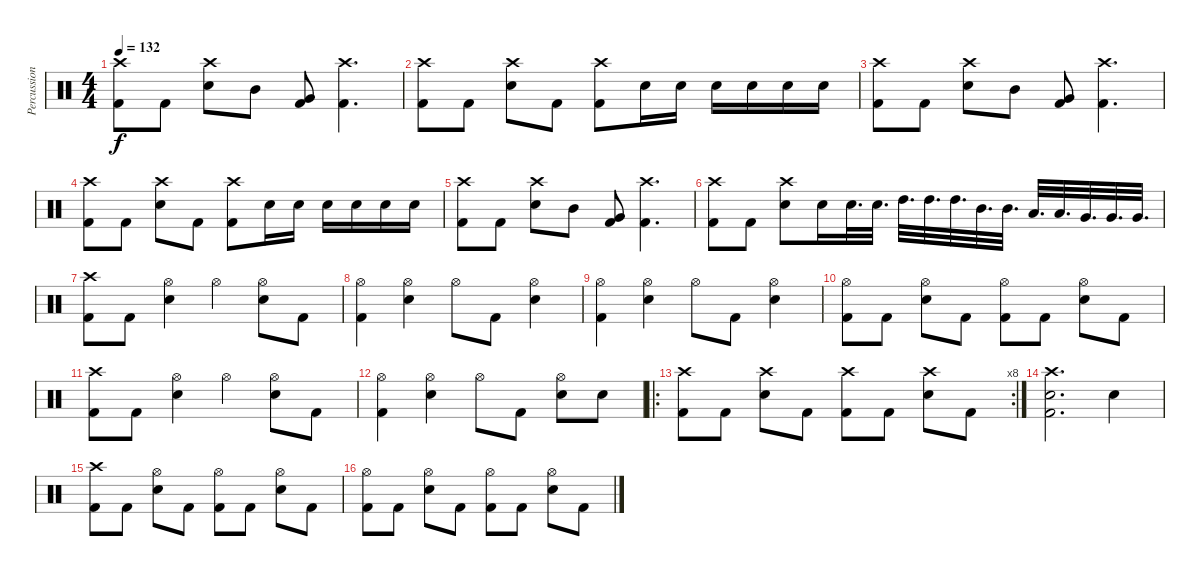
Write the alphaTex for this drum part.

\track ("Percussion" "Percussion") {instrument percussion}
\staff {score}
\articulation defaults
\ts (4 4)
\tempo 132
\clef neutral
\ks c
("Crash high (hit)" "Kick (hit) 2").8{dy f} "Kick (hit) 2".8 ("Crash high (hit)" "Electric Snare (hit)").8 "Mid Tom (hit)".8 ("Very Low Tom (hit)" "Kick (hit) 2").8 ("Crash high (hit)" "Kick (hit) 2").4{d} |
("Crash high (hit)" "Kick (hit) 2").8 "Kick (hit) 2".8 ("Crash high (hit)" "Electric Snare (hit)").8 "Kick (hit) 2".8 ("Crash high (hit)" "Kick (hit) 2").8 "Electric Snare (hit)".16 "Electric Snare (hit)".16 "Electric Snare (hit)".16 "Electric Snare (hit)".16 "Electric Snare (hit)".16 "Electric Snare (hit)".16 |
("Crash high (hit)" "Kick (hit) 2").8 "Kick (hit) 2".8 ("Crash high (hit)" "Electric Snare (hit)").8 "Mid Tom (hit)".8 ("Very Low Tom (hit)" "Kick (hit) 2").8 ("Crash high (hit)" "Kick (hit) 2").4{d} |
("Crash high (hit)" "Kick (hit) 2").8 "Kick (hit) 2".8 ("Crash high (hit)" "Electric Snare (hit)").8 "Kick (hit) 2".8 ("Crash high (hit)" "Kick (hit) 2").8 "Electric Snare (hit)".16 "Electric Snare (hit)".16 "Electric Snare (hit)".16 "Electric Snare (hit)".16 "Electric Snare (hit)".16 "Electric Snare (hit)".16 |
("Crash high (hit)" "Kick (hit) 2").8 "Kick (hit) 2".8 ("Crash high (hit)" "Electric Snare (hit)").8 "Mid Tom (hit)".8 ("Very Low Tom (hit)" "Kick (hit) 2").8 ("Crash high (hit)" "Kick (hit) 2").4{d} |
("Crash high (hit)" "Kick (hit) 2").8 "Kick (hit) 2".8 ("Crash high (hit)" "Electric Snare (hit)").8 "Electric Snare (hit)".16 "Electric Snare (hit)".32{d} "Electric Snare (hit)".32{d} "High Tom (hit)".32{d} "High Tom (hit)".32{d} "High Tom (hit)".32{d} "Mid Tom (hit)".32{d} "Mid Tom (hit)".32{d} "Low Tom (hit)".32{d} "Low Tom (hit)".32{d} "Very Low Tom (hit)".32{d} "Very Low Tom (hit)".32{d} "Very Low Tom (hit)".32{d} |
("Crash high (hit)" "Kick (hit) 2").8 "Kick (hit) 2".8 ("Hi-Hat (open)" "Electric Snare (hit)").4 "Hi-Hat (open)".4 ("Hi-Hat (open)" "Electric Snare (hit)").8 "Kick (hit) 2".8 |
("Hi-Hat (open)" "Kick (hit) 2").4 ("Hi-Hat (open)" "Electric Snare (hit)").4 "Hi-Hat (open)".8 "Kick (hit) 2".8 ("Hi-Hat (open)" "Electric Snare (hit)").4 |
("Hi-Hat (open)" "Kick (hit) 2").4 ("Hi-Hat (open)" "Electric Snare (hit)").4 "Hi-Hat (open)".8 "Kick (hit) 2".8 ("Hi-Hat (open)" "Electric Snare (hit)").4 |
("Hi-Hat (open)" "Kick (hit) 2").8 "Kick (hit) 2".8 ("Hi-Hat (open)" "Electric Snare (hit)").8 "Kick (hit) 2".8 ("Hi-Hat (open)" "Kick (hit) 2").8 "Kick (hit) 2".8 ("Hi-Hat (open)" "Electric Snare (hit)").8 "Kick (hit) 2".8 |
("Crash high (hit)" "Kick (hit) 2").8 "Kick (hit) 2".8 ("Hi-Hat (open)" "Electric Snare (hit)").4 "Hi-Hat (open)".4 ("Hi-Hat (open)" "Electric Snare (hit)").8 "Kick (hit) 2".8 |
("Hi-Hat (open)" "Kick (hit) 2").4 ("Hi-Hat (open)" "Electric Snare (hit)").4 "Hi-Hat (open)".8 "Kick (hit) 2".8 ("Hi-Hat (open)" "Electric Snare (hit)").8 "Electric Snare (hit)".8 |
\ro
\rc 8
("Crash high (hit)" "Kick (hit) 2").8 "Kick (hit) 2".8 ("Crash high (hit)" "Electric Snare (hit)").8 "Kick (hit) 2".8 ("Crash high (hit)" "Kick (hit) 2").8 "Kick (hit) 2".8 ("Crash high (hit)" "Electric Snare (hit)").8 "Kick (hit) 2".8 |
("Crash high (hit)" "Electric Snare (hit)" "Kick (hit) 2").2{d} "Electric Snare (hit)".4 |
("Crash high (hit)" "Kick (hit) 2").8 "Kick (hit) 2".8 ("Hi-Hat (open)" "Electric Snare (hit)").8 "Kick (hit) 2".8 ("Hi-Hat (open)" "Kick (hit) 2").8 "Kick (hit) 2".8 ("Hi-Hat (open)" "Electric Snare (hit)").8 "Kick (hit) 2".8 |
("Hi-Hat (open)" "Kick (hit) 2").8 "Kick (hit) 2".8 ("Hi-Hat (open)" "Electric Snare (hit)").8 "Kick (hit) 2".8 ("Hi-Hat (open)" "Kick (hit) 2").8 "Kick (hit) 2".8 ("Hi-Hat (open)" "Electric Snare (hit)").8 "Kick (hit) 2".8
